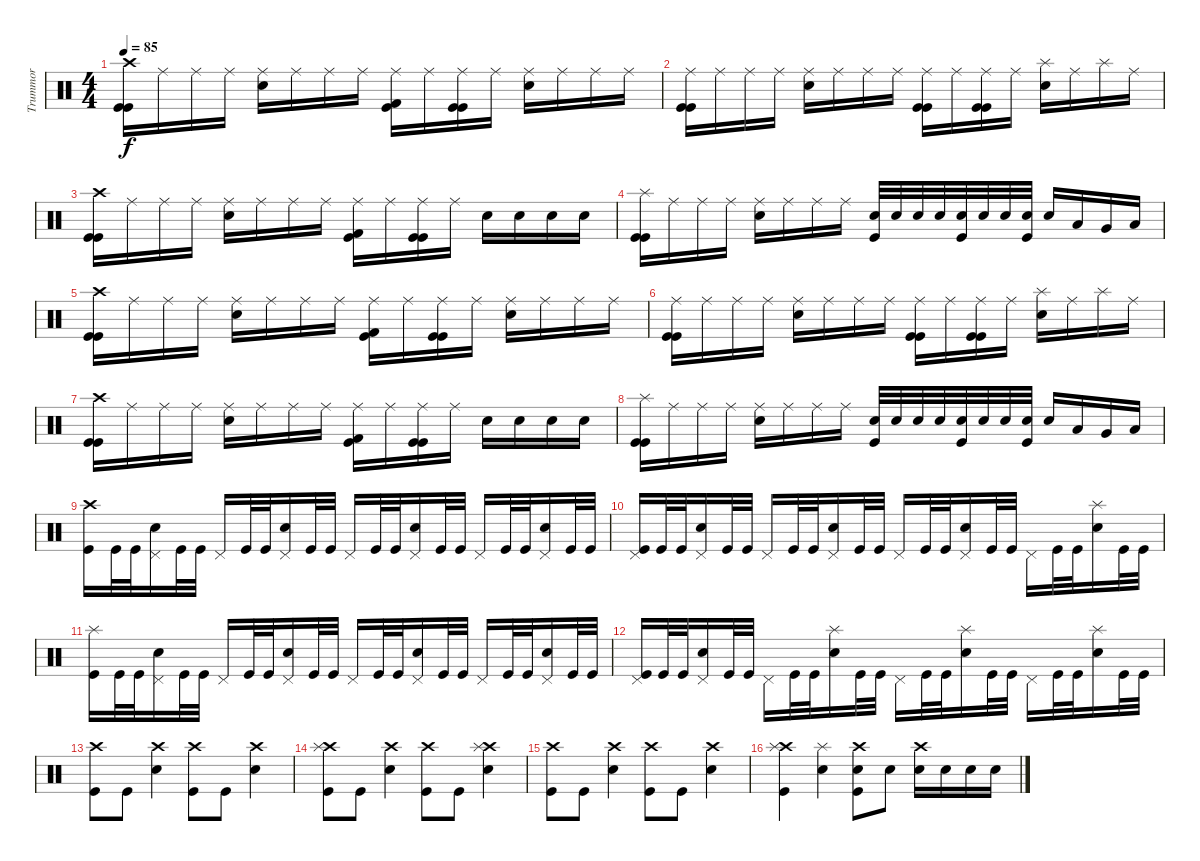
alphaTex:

\track ("Trummor" "Trummor") {instrument percussion}
\staff {score}
\articulation defaults
\ts (4 4)
\tempo 85
\clef neutral
\ks c
("Crash high (hit)" "Kick (hit)" "Kick (hit)").16{dy f} "Ride (middle)".16 "Ride (middle)".16 "Ride (middle)".16 ("Ride (middle)" "Snare (hit) 2").16 "Ride (middle)".16 "Ride (middle)".16 "Ride (middle)".16 ("Ride (middle)" "Kick (hit) 2" "Kick (hit)").16 "Ride (middle)".16 ("Ride (middle)" "Kick (hit)" "Kick (hit)").16 "Ride (middle)".16 ("Ride (middle)" "Snare (hit) 2").16 "Ride (middle)".16 "Ride (middle)".16 "Ride (middle)".16 |
("Ride (middle)" "Kick (hit)" "Kick (hit)").16 "Ride (middle)".16 "Ride (middle)".16 "Ride (middle)".16 ("Ride (middle)" "Snare (hit) 2").16 "Ride (middle)".16 "Ride (middle)".16 "Ride (middle)".16 ("Ride (middle)" "Kick (hit)" "Kick (hit)").16 "Ride (middle)".16 ("Ride (middle)" "Kick (hit)" "Kick (hit)").16 "Ride (middle)".16 ("Splash (hit)" "Snare (hit) 2").16 "Ride (middle)".16 "Splash (hit)".16 "Ride (middle)".16 |
("Crash high (hit)" "Kick (hit)" "Kick (hit)").16 "Ride (middle)".16 "Ride (middle)".16 "Ride (middle)".16 ("Ride (middle)" "Snare (hit) 2").16 "Ride (middle)".16 "Ride (middle)".16 "Ride (middle)".16 ("Ride (middle)" "Kick (hit) 2" "Kick (hit)").16 "Ride (middle)".16 ("Ride (middle)" "Kick (hit)" "Kick (hit)").16 "Ride (middle)".16 "Snare (hit) 2".16 "Snare (hit) 2".16 "Snare (hit) 2".16 "Snare (hit) 2".16 |
("Splash (hit)" "Kick (hit)" "Kick (hit)").16 "Ride (middle)".16 "Ride (middle)".16 "Ride (middle)".16 ("Ride (middle)" "Snare (hit) 2").16 "Ride (middle)".16 "Ride (middle)".16 "Ride (middle)".16 ("Snare (hit) 2" "Kick (hit)").32 "Snare (hit) 2".32 "Snare (hit) 2".32 "Snare (hit) 2".32 ("Snare (hit) 2" "Kick (hit)").32 "Snare (hit) 2".32 "Snare (hit) 2".32 ("Snare (hit) 2" "Kick (hit)").32 "Snare (hit) 2".16 "Low Floor Tom (hit)".16 "Very Low Tom (hit)".16 "Low Tom (hit)".16 |
("Crash high (hit)" "Kick (hit)" "Kick (hit)").16 "Ride (middle)".16 "Ride (middle)".16 "Ride (middle)".16 ("Ride (middle)" "Snare (hit) 2").16 "Ride (middle)".16 "Ride (middle)".16 "Ride (middle)".16 ("Ride (middle)" "Kick (hit) 2" "Kick (hit)").16 "Ride (middle)".16 ("Ride (middle)" "Kick (hit)" "Kick (hit)").16 "Ride (middle)".16 ("Ride (middle)" "Snare (hit) 2").16 "Ride (middle)".16 "Ride (middle)".16 "Ride (middle)".16 |
("Ride (middle)" "Kick (hit)" "Kick (hit)").16 "Ride (middle)".16 "Ride (middle)".16 "Ride (middle)".16 ("Ride (middle)" "Snare (hit) 2").16 "Ride (middle)".16 "Ride (middle)".16 "Ride (middle)".16 ("Ride (middle)" "Kick (hit)" "Kick (hit)").16 "Ride (middle)".16 ("Ride (middle)" "Kick (hit)" "Kick (hit)").16 "Ride (middle)".16 ("Splash (hit)" "Snare (hit) 2").16 "Ride (middle)".16 "Splash (hit)".16 "Ride (middle)".16 |
("Crash high (hit)" "Kick (hit)" "Kick (hit)").16 "Ride (middle)".16 "Ride (middle)".16 "Ride (middle)".16 ("Ride (middle)" "Snare (hit) 2").16 "Ride (middle)".16 "Ride (middle)".16 "Ride (middle)".16 ("Ride (middle)" "Kick (hit) 2" "Kick (hit)").16 "Ride (middle)".16 ("Ride (middle)" "Kick (hit)" "Kick (hit)").16 "Ride (middle)".16 "Snare (hit) 2".16 "Snare (hit) 2".16 "Snare (hit) 2".16 "Snare (hit) 2".16 |
("Splash (hit)" "Kick (hit)" "Kick (hit)").16 "Ride (middle)".16 "Ride (middle)".16 "Ride (middle)".16 ("Ride (middle)" "Snare (hit) 2").16 "Ride (middle)".16 "Ride (middle)".16 "Ride (middle)".16 ("Snare (hit) 2" "Kick (hit)").32 "Snare (hit) 2".32 "Snare (hit) 2".32 "Snare (hit) 2".32 ("Snare (hit) 2" "Kick (hit)").32 "Snare (hit) 2".32 "Snare (hit) 2".32 ("Snare (hit) 2" "Kick (hit)").32 "Snare (hit) 2".16 "Low Floor Tom (hit)".16 "Very Low Tom (hit)".16 "Low Tom (hit)".16 |
("Crash high (hit)" "Kick (hit)").16 "Kick (hit)".32 "Kick (hit)".32 ("Pedal Hi-Hat (hit)" "Snare (hit) 2").16 "Kick (hit)".32 "Kick (hit)".32 "Pedal Hi-Hat (hit)".16 "Kick (hit)".32 "Kick (hit)".32 ("Pedal Hi-Hat (hit)" "Snare (hit) 2").16 "Kick (hit)".32 "Kick (hit)".32 "Pedal Hi-Hat (hit)".16 "Kick (hit)".32 "Kick (hit)".32 ("Pedal Hi-Hat (hit)" "Snare (hit) 2").16 "Kick (hit)".32 "Kick (hit)".32 "Pedal Hi-Hat (hit)".16 "Kick (hit)".32 "Kick (hit)".32 ("Pedal Hi-Hat (hit)" "Snare (hit) 2").16 "Kick (hit)".32 "Kick (hit)".32 |
("Pedal Hi-Hat (hit)" "Kick (hit)").16 "Kick (hit)".32 "Kick (hit)".32 ("Pedal Hi-Hat (hit)" "Snare (hit) 2").16 "Kick (hit)".32 "Kick (hit)".32 "Pedal Hi-Hat (hit)".16 "Kick (hit)".32 "Kick (hit)".32 ("Pedal Hi-Hat (hit)" "Snare (hit) 2").16 "Kick (hit)".32 "Kick (hit)".32 "Pedal Hi-Hat (hit)".16 "Kick (hit)".32 "Kick (hit)".32 ("Pedal Hi-Hat (hit)" "Snare (hit) 2").16 "Kick (hit)".32 "Kick (hit)".32 "Pedal Hi-Hat (hit)".16 "Kick (hit)".32 "Kick (hit)".32 ("Splash (hit)" "Snare (hit) 2").16 "Kick (hit)".32 "Kick (hit)".32 |
("Splash (hit)" "Kick (hit)").16 "Kick (hit)".32 "Kick (hit)".32 ("Pedal Hi-Hat (hit)" "Snare (hit) 2").16 "Kick (hit)".32 "Kick (hit)".32 "Pedal Hi-Hat (hit)".16 "Kick (hit)".32 "Kick (hit)".32 ("Pedal Hi-Hat (hit)" "Snare (hit) 2").16 "Kick (hit)".32 "Kick (hit)".32 "Pedal Hi-Hat (hit)".16 "Kick (hit)".32 "Kick (hit)".32 ("Pedal Hi-Hat (hit)" "Snare (hit) 2").16 "Kick (hit)".32 "Kick (hit)".32 "Pedal Hi-Hat (hit)".16 "Kick (hit)".32 "Kick (hit)".32 ("Pedal Hi-Hat (hit)" "Snare (hit) 2").16 "Kick (hit)".32 "Kick (hit)".32 |
("Pedal Hi-Hat (hit)" "Kick (hit)").16 "Kick (hit)".32 "Kick (hit)".32 ("Pedal Hi-Hat (hit)" "Snare (hit) 2").16 "Kick (hit)".32 "Kick (hit)".32 "Pedal Hi-Hat (hit)".16 "Kick (hit)".32 "Kick (hit)".32 ("Splash (hit)" "Snare (hit) 2").16 "Kick (hit)".32 "Kick (hit)".32 "Pedal Hi-Hat (hit)".16 "Kick (hit)".32 "Kick (hit)".32 ("Splash (hit)" "Snare (hit) 2").16 "Kick (hit)".32 "Kick (hit)".32 "Pedal Hi-Hat (hit)".16 "Kick (hit)".32 "Kick (hit)".32 ("Splash (hit)" "Snare (hit) 2").16 "Kick (hit)".32 "Kick (hit)".32 |
("Crash high (hit)" "Kick (hit)").8 "Kick (hit)".8 ("Crash high (hit)" "Snare (hit) 2").4 ("Crash high (hit)" "Kick (hit)").8 "Kick (hit)".8 ("Crash high (hit)" "Snare (hit) 2").4 |
("Crash high (hit)" "Splash (hit)" "Kick (hit)").8 "Kick (hit)".8 ("Crash high (hit)" "Snare (hit) 2").4 ("Crash high (hit)" "Kick (hit)").8 "Kick (hit)".8 ("Crash high (hit)" "Splash (hit)" "Snare (hit) 2").4 |
("Crash high (hit)" "Kick (hit)").8 "Kick (hit)".8 ("Crash high (hit)" "Snare (hit) 2").4 ("Crash high (hit)" "Kick (hit)").8 "Kick (hit)".8 ("Crash high (hit)" "Snare (hit) 2").4 |
("Crash high (hit)" "Splash (hit)" "Kick (hit)").4 ("Splash (hit)" "Snare (hit) 2").4 ("Crash high (hit)" "Snare (hit) 2" "Kick (hit)").8 "Snare (hit) 2".8 ("Crash high (hit)" "Snare (hit) 2").16 "Snare (hit) 2".16 "Snare (hit) 2".16 "Snare (hit) 2".16
